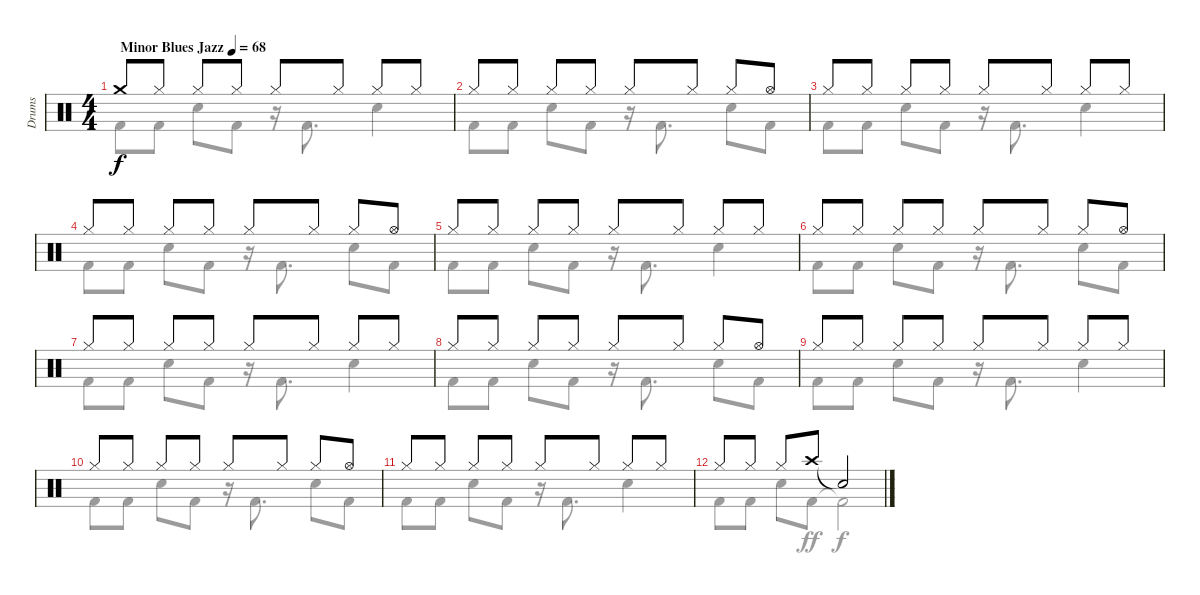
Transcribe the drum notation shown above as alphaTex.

\track ("Drums" "Drums") {instrument percussion}
\staff {score}
\articulation defaults
\voice
\ts (4 4)
\tempo (68 "Minor Blues Jazz")
\clef neutral
\ks c "Crash medium (hit)".8{dy f} "Hi-Hat (closed)".8 "Hi-Hat (closed)".8 "Hi-Hat (closed)".8 "Hi-Hat (closed)".8 "Hi-Hat (closed)".8 "Hi-Hat (closed)".8 "Hi-Hat (closed)".8
|
"Hi-Hat (closed)".8 "Hi-Hat (closed)".8 "Hi-Hat (closed)".8 "Hi-Hat (closed)".8 "Hi-Hat (closed)".8 "Hi-Hat (closed)".8 "Hi-Hat (closed)".8 "Hi-Hat (open)".8 |
"Hi-Hat (closed)".8 "Hi-Hat (closed)".8 "Hi-Hat (closed)".8 "Hi-Hat (closed)".8 "Hi-Hat (closed)".8 "Hi-Hat (closed)".8 "Hi-Hat (closed)".8 "Hi-Hat (closed)".8 |
"Hi-Hat (closed)".8 "Hi-Hat (closed)".8 "Hi-Hat (closed)".8 "Hi-Hat (closed)".8 "Hi-Hat (closed)".8 "Hi-Hat (closed)".8 "Hi-Hat (closed)".8 "Hi-Hat (open)".8 |
"Hi-Hat (closed)".8 "Hi-Hat (closed)".8 "Hi-Hat (closed)".8 "Hi-Hat (closed)".8 "Hi-Hat (closed)".8 "Hi-Hat (closed)".8 "Hi-Hat (closed)".8 "Hi-Hat (closed)".8 |
"Hi-Hat (closed)".8 "Hi-Hat (closed)".8 "Hi-Hat (closed)".8 "Hi-Hat (closed)".8 "Hi-Hat (closed)".8 "Hi-Hat (closed)".8 "Hi-Hat (closed)".8 "Hi-Hat (open)".8 |
"Hi-Hat (closed)".8 "Hi-Hat (closed)".8 "Hi-Hat (closed)".8 "Hi-Hat (closed)".8 "Hi-Hat (closed)".8 "Hi-Hat (closed)".8 "Hi-Hat (closed)".8 "Hi-Hat (closed)".8 |
"Hi-Hat (closed)".8 "Hi-Hat (closed)".8 "Hi-Hat (closed)".8 "Hi-Hat (closed)".8 "Hi-Hat (closed)".8 "Hi-Hat (closed)".8 "Hi-Hat (closed)".8 "Hi-Hat (open)".8 |
"Hi-Hat (closed)".8 "Hi-Hat (closed)".8 "Hi-Hat (closed)".8 "Hi-Hat (closed)".8 "Hi-Hat (closed)".8 "Hi-Hat (closed)".8 "Hi-Hat (closed)".8 "Hi-Hat (closed)".8 |
"Hi-Hat (closed)".8 "Hi-Hat (closed)".8 "Hi-Hat (closed)".8 "Hi-Hat (closed)".8 "Hi-Hat (closed)".8 "Hi-Hat (closed)".8 "Hi-Hat (closed)".8 "Hi-Hat (open)".8 |
"Hi-Hat (closed)".8 "Hi-Hat (closed)".8 "Hi-Hat (closed)".8 "Hi-Hat (closed)".8 "Hi-Hat (closed)".8 "Hi-Hat (closed)".8 "Hi-Hat (closed)".8 "Hi-Hat (closed)".8 |
"Hi-Hat (closed)".8 "Hi-Hat (closed)".8 "Hi-Hat (closed)".8 "Crash high (hit)".8 "Snare (hit)"{t}.2{volume 0}
\voice
\clef neutral
\ottava regular
\simile none
\ks c "Kick (hit) 2".8{dy f} "Kick (hit) 2".8 "Electric Snare (hit)".8 "Kick (hit) 2".8
r.16 "Kick (hit) 2".8{d} "Electric Snare (hit)".4 |
"Kick (hit) 2".8 "Kick (hit) 2".8 "Electric Snare (hit)".8 "Kick (hit) 2".8 r.16 "Kick (hit) 2".8{d} "Electric Snare (hit)".8 "Kick (hit) 2".8 |
"Kick (hit) 2".8 "Kick (hit) 2".8 "Electric Snare (hit)".8 "Kick (hit) 2".8 r.16 "Kick (hit) 2".8{d} "Electric Snare (hit)".4 |
"Kick (hit) 2".8 "Kick (hit) 2".8 "Electric Snare (hit)".8 "Kick (hit) 2".8 r.16 "Kick (hit) 2".8{d} "Electric Snare (hit)".8 "Kick (hit) 2".8 |
"Kick (hit) 2".8 "Kick (hit) 2".8 "Electric Snare (hit)".8 "Kick (hit) 2".8 r.16 "Kick (hit) 2".8{d} "Electric Snare (hit)".4 |
"Kick (hit) 2".8 "Kick (hit) 2".8 "Electric Snare (hit)".8 "Kick (hit) 2".8 r.16 "Kick (hit) 2".8{d} "Electric Snare (hit)".8 "Kick (hit) 2".8 |
"Kick (hit) 2".8 "Kick (hit) 2".8 "Electric Snare (hit)".8 "Kick (hit) 2".8 r.16 "Kick (hit) 2".8{d} "Electric Snare (hit)".4 |
"Kick (hit) 2".8 "Kick (hit) 2".8 "Electric Snare (hit)".8 "Kick (hit) 2".8 r.16 "Kick (hit) 2".8{d} "Electric Snare (hit)".8 "Kick (hit) 2".8 |
"Kick (hit) 2".8 "Kick (hit) 2".8 "Electric Snare (hit)".8 "Kick (hit) 2".8 r.16 "Kick (hit) 2".8{d} "Electric Snare (hit)".4 |
"Kick (hit) 2".8 "Kick (hit) 2".8 "Electric Snare (hit)".8 "Kick (hit) 2".8 r.16 "Kick (hit) 2".8{d} "Electric Snare (hit)".8 "Kick (hit) 2".8 |
"Kick (hit) 2".8 "Kick (hit) 2".8 "Electric Snare (hit)".8 "Kick (hit) 2".8 r.16 "Kick (hit) 2".8{d} "Electric Snare (hit)".4 |
"Kick (hit) 2".8 "Kick (hit) 2".8 "Electric Snare (hit)".8 "Kick (hit) 2".8{dy ff} "Kick (hit) 2"{t}.2{dy f}
